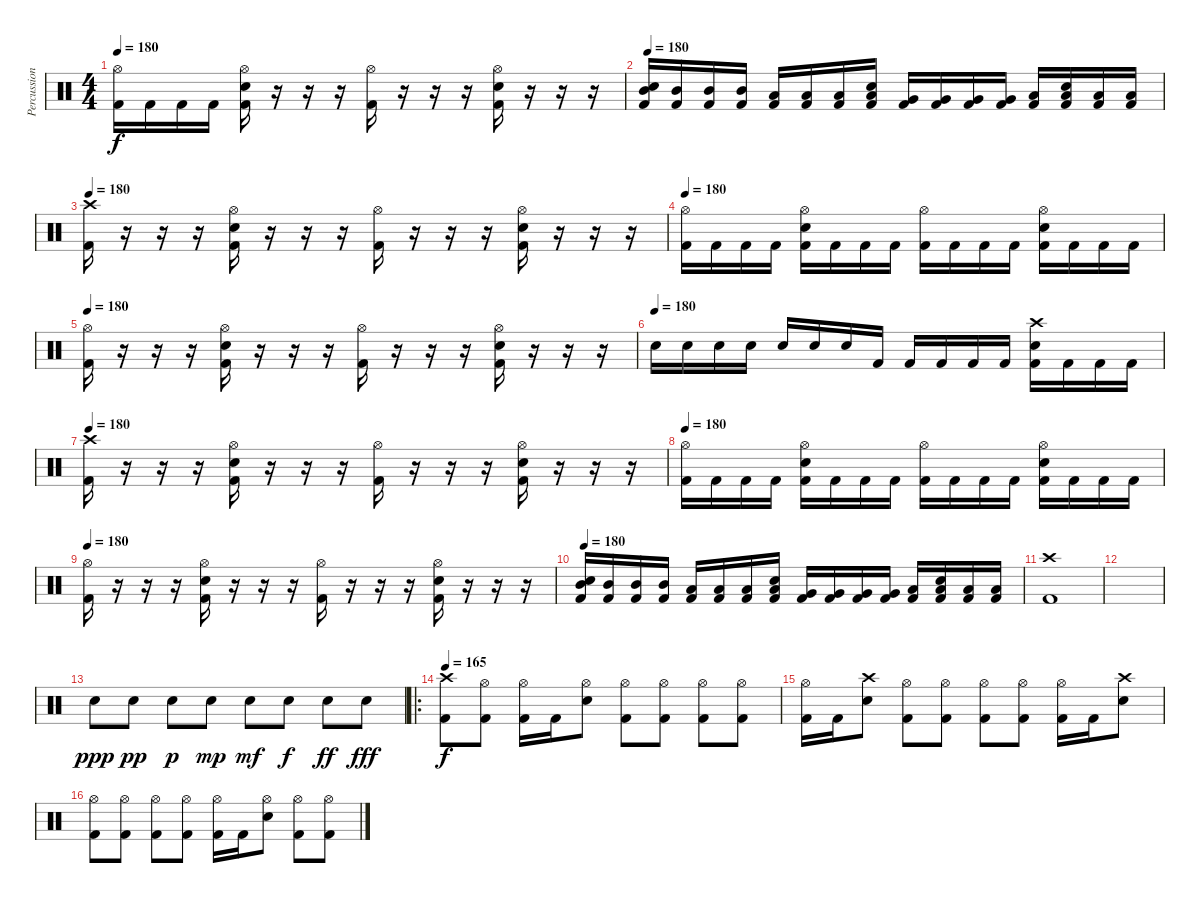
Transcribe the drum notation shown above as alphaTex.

\track ("Percussion" "Percussion") {instrument percussion}
\staff {score}
\articulation defaults
\ts (4 4)
\tempo 180
\clef neutral
\ks c
("Hi-Hat (open)" "Kick (hit) 2").16{dy f} "Kick (hit) 2".16 "Kick (hit) 2".16 "Kick (hit) 2".16 ("Hi-Hat (open)" "Snare (hit) 2" "Kick (hit) 2").16 r.16 r.16 r.16 ("Hi-Hat (open)" "Kick (hit) 2").16 r.16 r.16 r.16 ("Hi-Hat (open)" "Snare (hit) 2" "Kick (hit) 2").16 r.16 r.16 r.16 |
\tempo 180
("Mid Tom (hit)" "Snare (hit) 2" "Kick (hit) 2").16 ("Mid Tom (hit)" "Kick (hit) 2").16 ("Mid Tom (hit)" "Kick (hit) 2").16 ("Mid Tom (hit)" "Kick (hit) 2").16 ("Low Tom (hit)" "Kick (hit) 2").16 ("Low Tom (hit)" "Kick (hit) 2").16 ("Low Tom (hit)" "Kick (hit) 2").16 ("Low Tom (hit)" "Snare (hit) 2" "Kick (hit) 2").16 ("Very Low Tom (hit)" "Kick (hit) 2").16 ("Very Low Tom (hit)" "Kick (hit) 2").16 ("Very Low Tom (hit)" "Kick (hit) 2").16 ("Very Low Tom (hit)" "Kick (hit) 2").16 ("Low Floor Tom (hit)" "Kick (hit) 2").16 ("Low Floor Tom (hit)" "Snare (hit) 2" "Kick (hit) 2").16 ("Low Floor Tom (hit)" "Kick (hit) 2").16 ("Low Floor Tom (hit)" "Kick (hit) 2").16 |
\tempo 180
("Crash high (hit)" "Kick (hit) 2").16 r.16 r.16 r.16 ("Hi-Hat (open)" "Snare (hit) 2" "Kick (hit) 2").16 r.16 r.16 r.16 ("Hi-Hat (open)" "Kick (hit) 2").16 r.16 r.16 r.16 ("Hi-Hat (open)" "Snare (hit) 2" "Kick (hit) 2").16 r.16 r.16 r.16 |
\tempo 180
("Hi-Hat (open)" "Kick (hit) 2").16 "Kick (hit) 2".16 "Kick (hit) 2".16 "Kick (hit) 2".16 ("Hi-Hat (open)" "Snare (hit) 2" "Kick (hit) 2").16 "Kick (hit) 2".16 "Kick (hit) 2".16 "Kick (hit) 2".16 ("Hi-Hat (open)" "Kick (hit) 2").16 "Kick (hit) 2".16 "Kick (hit) 2".16 "Kick (hit) 2".16 ("Hi-Hat (open)" "Snare (hit) 2" "Kick (hit) 2").16 "Kick (hit) 2".16 "Kick (hit) 2".16 "Kick (hit) 2".16 |
\tempo 180
("Hi-Hat (open)" "Kick (hit) 2").16 r.16 r.16 r.16 ("Hi-Hat (open)" "Snare (hit) 2" "Kick (hit) 2").16 r.16 r.16 r.16 ("Hi-Hat (open)" "Kick (hit) 2").16 r.16 r.16 r.16 ("Hi-Hat (open)" "Snare (hit) 2" "Kick (hit) 2").16 r.16 r.16 r.16 |
\tempo (180)
"Snare (hit) 2".16 "Snare (hit) 2".16 "Snare (hit) 2".16 "Snare (hit) 2".16 "Snare (hit) 2".16 "Snare (hit) 2".16 "Snare (hit) 2".16 "Kick (hit) 2".16 "Kick (hit) 2".16 "Kick (hit) 2".16 "Kick (hit) 2".16 "Kick (hit) 2".16 ("Crash high (hit)" "Snare (hit) 2" "Kick (hit) 2").16 "Kick (hit) 2".16 "Kick (hit) 2".16 "Kick (hit) 2".16 |
\tempo 180
("Crash high (hit)" "Kick (hit) 2").16 r.16 r.16 r.16 ("Hi-Hat (open)" "Snare (hit) 2" "Kick (hit) 2").16 r.16 r.16 r.16 ("Hi-Hat (open)" "Kick (hit) 2").16 r.16 r.16 r.16 ("Hi-Hat (open)" "Snare (hit) 2" "Kick (hit) 2").16 r.16 r.16 r.16 |
\tempo 180
("Hi-Hat (open)" "Kick (hit) 2").16 "Kick (hit) 2".16 "Kick (hit) 2".16 "Kick (hit) 2".16 ("Hi-Hat (open)" "Snare (hit) 2" "Kick (hit) 2").16 "Kick (hit) 2".16 "Kick (hit) 2".16 "Kick (hit) 2".16 ("Hi-Hat (open)" "Kick (hit) 2").16 "Kick (hit) 2".16 "Kick (hit) 2".16 "Kick (hit) 2".16 ("Hi-Hat (open)" "Snare (hit) 2" "Kick (hit) 2").16 "Kick (hit) 2".16 "Kick (hit) 2".16 "Kick (hit) 2".16 |
\tempo 180
("Hi-Hat (open)" "Kick (hit) 2").16 r.16 r.16 r.16 ("Hi-Hat (open)" "Snare (hit) 2" "Kick (hit) 2").16 r.16 r.16 r.16 ("Hi-Hat (open)" "Kick (hit) 2").16 r.16 r.16 r.16 ("Hi-Hat (open)" "Snare (hit) 2" "Kick (hit) 2").16 r.16 r.16 r.16 |
\tempo 180
("Mid Tom (hit)" "Snare (hit) 2" "Kick (hit) 2").16 ("Mid Tom (hit)" "Kick (hit) 2").16 ("Mid Tom (hit)" "Kick (hit) 2").16 ("Mid Tom (hit)" "Kick (hit) 2").16 ("Low Tom (hit)" "Kick (hit) 2").16 ("Low Tom (hit)" "Kick (hit) 2").16 ("Low Tom (hit)" "Kick (hit) 2").16 ("Low Tom (hit)" "Snare (hit) 2" "Kick (hit) 2").16 ("Very Low Tom (hit)" "Kick (hit) 2").16 ("Very Low Tom (hit)" "Kick (hit) 2").16 ("Very Low Tom (hit)" "Kick (hit) 2").16 ("Very Low Tom (hit)" "Kick (hit) 2").16 ("Low Floor Tom (hit)" "Kick (hit) 2").16 ("Low Floor Tom (hit)" "Snare (hit) 2" "Kick (hit) 2").16 ("Low Floor Tom (hit)" "Kick (hit) 2").16 ("Low Floor Tom (hit)" "Kick (hit) 2").16 |
("Crash high (hit)" "Kick (hit) 2").1 |
|
"Snare (hit) 2".8{dy ppp} "Snare (hit) 2".8{dy pp} "Snare (hit) 2".8{dy p} "Snare (hit) 2".8{dy mp} "Snare (hit) 2".8{dy mf} "Snare (hit) 2".8{dy f} "Snare (hit) 2".8{dy ff} "Snare (hit) 2".8{dy fff} |
\ro
\tempo 165
("Crash high (hit)" "Kick (hit) 2").8{dy f} ("Hi-Hat (open)" "Kick (hit) 2").8 ("Hi-Hat (open)" "Kick (hit) 2").16 "Kick (hit) 2".16 ("Hi-Hat (open)" "Snare (hit) 2").8 ("Hi-Hat (open)" "Kick (hit) 2").8 ("Hi-Hat (open)" "Kick (hit) 2").8 ("Hi-Hat (open)" "Kick (hit) 2").8 ("Hi-Hat (open)" "Kick (hit) 2").8 |
("Hi-Hat (open)" "Kick (hit) 2").16 "Kick (hit) 2".16 ("Crash high (hit)" "Snare (hit) 2").8 ("Hi-Hat (open)" "Kick (hit) 2").8 ("Hi-Hat (open)" "Kick (hit) 2").8 ("Hi-Hat (open)" "Kick (hit) 2").8 ("Hi-Hat (open)" "Kick (hit) 2").8 ("Hi-Hat (open)" "Kick (hit) 2").16 "Kick (hit) 2".16 ("Crash high (hit)" "Snare (hit) 2").8 |
("Hi-Hat (open)" "Kick (hit) 2").8 ("Hi-Hat (open)" "Kick (hit) 2").8 ("Hi-Hat (open)" "Kick (hit) 2").8 ("Hi-Hat (open)" "Kick (hit) 2").8 ("Hi-Hat (open)" "Kick (hit) 2").16 "Kick (hit) 2".16 ("Hi-Hat (open)" "Snare (hit) 2").8 ("Hi-Hat (open)" "Kick (hit) 2").8 ("Hi-Hat (open)" "Kick (hit) 2").8
